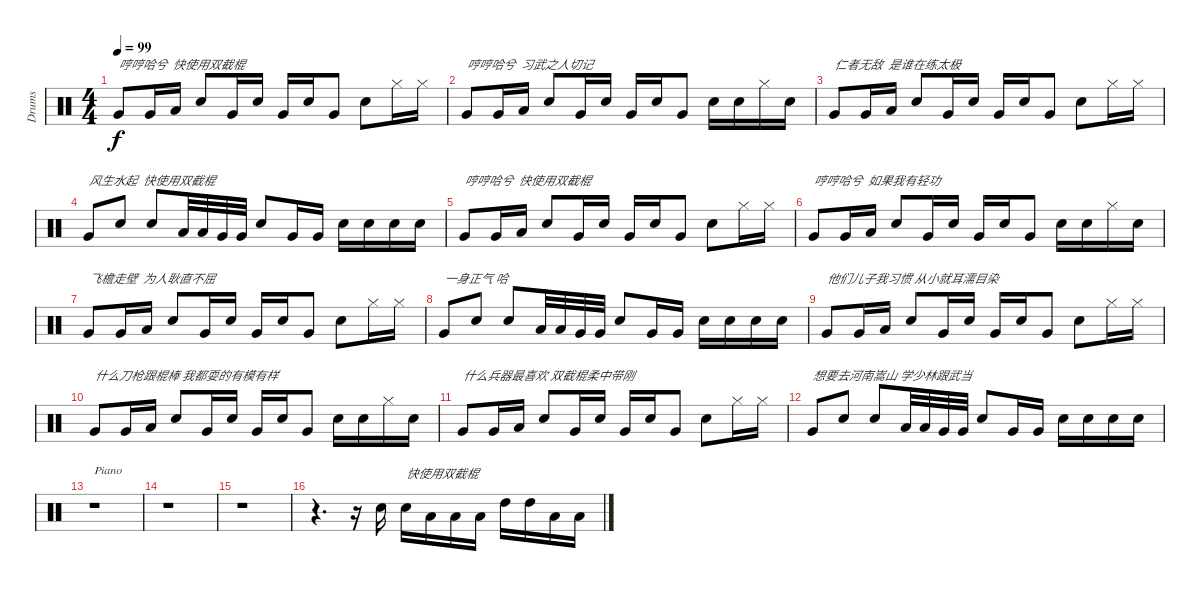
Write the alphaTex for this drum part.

\track ("Drums" "Drums") {instrument percussion}
\staff {score}
\articulation defaults
\ts (4 4)
\tempo 99
\clef neutral
\ks c "Very Low Tom (hit)".8{txt "哼哼哈兮  快使用双截棍" dy f} "Very Low Tom (hit)".16 "Low Floor Tom (hit)".16 "Snare (hit) 2".8 "Very Low Tom (hit)".16 "Snare (hit) 2".16 "Very Low Tom (hit)".16 "Snare (hit) 2".16 "Very Low Tom (hit)".8 "Snare (hit) 2".8 "Hi-Hat (closed)".16 "Hi-Hat (closed)".16
|
"Very Low Tom (hit)".8{txt "哼哼哈兮  习武之人切记"} "Very Low Tom (hit)".16 "Low Floor Tom (hit)".16 "Snare (hit) 2".8 "Very Low Tom (hit)".16 "Snare (hit) 2".16 "Very Low Tom (hit)".16 "Snare (hit) 2".16 "Very Low Tom (hit)".8 "Snare (hit) 2".16 "Snare (hit) 2".16 "Hi-Hat (closed)".16 "Snare (hit) 2".16 |
"Very Low Tom (hit)".8{txt "仁者无敌  是谁在练太极"} "Very Low Tom (hit)".16 "Low Floor Tom (hit)".16 "Snare (hit) 2".8 "Very Low Tom (hit)".16 "Snare (hit) 2".16 "Very Low Tom (hit)".16 "Snare (hit) 2".16 "Very Low Tom (hit)".8 "Snare (hit) 2".8 "Hi-Hat (closed)".16 "Hi-Hat (closed)".16 |
"Very Low Tom (hit)".8{txt "风生水起  快使用双截棍 "} "Snare (hit) 2".8 "Snare (hit) 2".8 "Low Tom (hit)".32 "Low Tom (hit)".32 "Very Low Tom (hit)".32 "Very Low Tom (hit)".32 "Snare (hit) 2".8 "Very Low Tom (hit)".16 "Very Low Tom (hit)".16 "Snare (hit) 2".16 "Snare (hit) 2".16 "Snare (hit) 2".16 "Snare (hit) 2".16 |
"Very Low Tom (hit)".8{txt "哼哼哈兮  快使用双截棍"} "Very Low Tom (hit)".16 "Low Floor Tom (hit)".16 "Snare (hit) 2".8 "Very Low Tom (hit)".16 "Snare (hit) 2".16 "Very Low Tom (hit)".16 "Snare (hit) 2".16 "Very Low Tom (hit)".8 "Snare (hit) 2".8 "Hi-Hat (closed)".16 "Hi-Hat (closed)".16 |
"Very Low Tom (hit)".8{txt "哼哼哈兮  如果我有轻功"} "Very Low Tom (hit)".16 "Low Floor Tom (hit)".16 "Snare (hit) 2".8 "Very Low Tom (hit)".16 "Snare (hit) 2".16 "Very Low Tom (hit)".16 "Snare (hit) 2".16 "Very Low Tom (hit)".8 "Snare (hit) 2".16 "Snare (hit) 2".16 "Hi-Hat (closed)".16 "Snare (hit) 2".16 |
"Very Low Tom (hit)".8{txt "飞檐走壁  为人耿直不屈"} "Very Low Tom (hit)".16 "Low Floor Tom (hit)".16 "Snare (hit) 2".8 "Very Low Tom (hit)".16 "Snare (hit) 2".16 "Very Low Tom (hit)".16 "Snare (hit) 2".16 "Very Low Tom (hit)".8 "Snare (hit) 2".8 "Hi-Hat (closed)".16 "Hi-Hat (closed)".16 |
"Very Low Tom (hit)".8{txt "一身正气 哈"} "Snare (hit) 2".8 "Snare (hit) 2".8 "Low Tom (hit)".32 "Low Tom (hit)".32 "Very Low Tom (hit)".32 "Very Low Tom (hit)".32 "Snare (hit) 2".8 "Very Low Tom (hit)".16 "Very Low Tom (hit)".16 "Snare (hit) 2".16 "Snare (hit) 2".16 "Snare (hit) 2".16 "Snare (hit) 2".16 |
"Very Low Tom (hit)".8{txt "他们儿子我习惯 从小就耳濡目染"} "Very Low Tom (hit)".16 "Low Floor Tom (hit)".16 "Snare (hit) 2".8 "Very Low Tom (hit)".16 "Snare (hit) 2".16 "Very Low Tom (hit)".16 "Snare (hit) 2".16 "Very Low Tom (hit)".8 "Snare (hit) 2".8 "Hi-Hat (closed)".16 "Hi-Hat (closed)".16 |
"Very Low Tom (hit)".8{txt "什么刀枪跟棍棒 我都耍的有模有样"} "Very Low Tom (hit)".16 "Low Floor Tom (hit)".16 "Snare (hit) 2".8 "Very Low Tom (hit)".16 "Snare (hit) 2".16 "Very Low Tom (hit)".16 "Snare (hit) 2".16 "Very Low Tom (hit)".8 "Snare (hit) 2".16 "Snare (hit) 2".16 "Hi-Hat (closed)".16 "Snare (hit) 2".16 |
"Very Low Tom (hit)".8{txt "什么兵器最喜欢 双截棍柔中带刚"} "Very Low Tom (hit)".16 "Low Floor Tom (hit)".16 "Snare (hit) 2".8 "Very Low Tom (hit)".16 "Snare (hit) 2".16 "Very Low Tom (hit)".16 "Snare (hit) 2".16 "Very Low Tom (hit)".8 "Snare (hit) 2".8 "Hi-Hat (closed)".16 "Hi-Hat (closed)".16 |
"Very Low Tom (hit)".8{txt "想要去河南嵩山 学少林跟武当"} "Snare (hit) 2".8 "Snare (hit) 2".8 "Low Tom (hit)".32 "Low Tom (hit)".32 "Very Low Tom (hit)".32 "Very Low Tom (hit)".32 "Snare (hit) 2".8 "Very Low Tom (hit)".16 "Very Low Tom (hit)".16 "Snare (hit) 2".16 "Snare (hit) 2".16 "Snare (hit) 2".16 "Snare (hit) 2".16 |
r.1{txt "Piano"} |
r.1 |
r.1 |
r.4{d} r.16 "Electric Snare (hit)".16 "Electric Snare (hit)".16{txt "快使用双截棍"} "Low Tom (hit)".16 "Low Floor Tom (hit)".16 "Low Floor Tom (hit)".16 "High Tom (hit)".16 "High Tom (hit)".16 "Low Tom (hit)".16 "Low Tom (hit)".16
